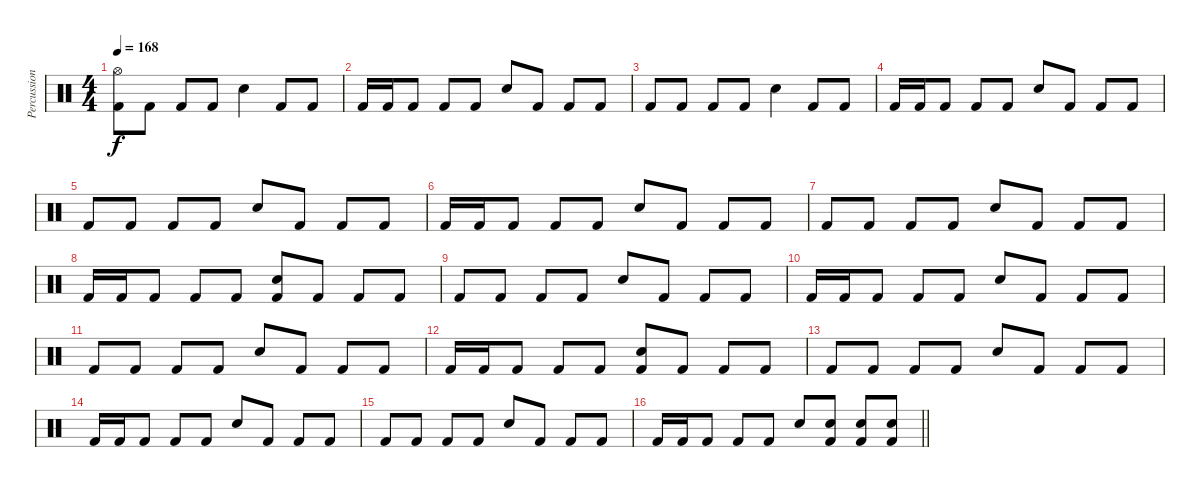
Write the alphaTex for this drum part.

\track ("Percussion" "Percussion") {instrument percussion}
\staff {score}
\articulation defaults
\ts (4 4)
\section ("" "")
\tempo 168
\clef neutral
\ks c
("Hi-Hat (open)" "Kick (hit) 2").8{dy f} "Kick (hit) 2".8 "Kick (hit) 2".8 "Kick (hit) 2".8 "Electric Snare (hit)".4 "Kick (hit) 2".8 "Kick (hit) 2".8 |
"Kick (hit) 2".16 "Kick (hit) 2".16 "Kick (hit) 2".8 "Kick (hit) 2".8 "Kick (hit) 2".8 "Electric Snare (hit)".8 "Kick (hit) 2".8 "Kick (hit) 2".8 "Kick (hit) 2".8 |
"Kick (hit) 2".8 "Kick (hit) 2".8 "Kick (hit) 2".8 "Kick (hit) 2".8 "Electric Snare (hit)".4 "Kick (hit) 2".8 "Kick (hit) 2".8 |
"Kick (hit) 2".16 "Kick (hit) 2".16 "Kick (hit) 2".8 "Kick (hit) 2".8 "Kick (hit) 2".8 "Electric Snare (hit)".8 "Kick (hit) 2".8 "Kick (hit) 2".8 "Kick (hit) 2".8 |
"Kick (hit) 2".8 "Kick (hit) 2".8 "Kick (hit) 2".8 "Kick (hit) 2".8 "Electric Snare (hit)".8 "Kick (hit) 2".8 "Kick (hit) 2".8 "Kick (hit) 2".8 |
"Kick (hit) 2".16 "Kick (hit) 2".16 "Kick (hit) 2".8 "Kick (hit) 2".8 "Kick (hit) 2".8 "Electric Snare (hit)".8 "Kick (hit) 2".8 "Kick (hit) 2".8 "Kick (hit) 2".8 |
"Kick (hit) 2".8 "Kick (hit) 2".8 "Kick (hit) 2".8 "Kick (hit) 2".8 "Electric Snare (hit)".8 "Kick (hit) 2".8 "Kick (hit) 2".8 "Kick (hit) 2".8 |
"Kick (hit) 2".16 "Kick (hit) 2".16 "Kick (hit) 2".8 "Kick (hit) 2".8 "Kick (hit) 2".8 ("Electric Snare (hit)" "Kick (hit) 2").8 "Kick (hit) 2".8 "Kick (hit) 2".8 "Kick (hit) 2".8 |
"Kick (hit) 2".8 "Kick (hit) 2".8 "Kick (hit) 2".8 "Kick (hit) 2".8 "Electric Snare (hit)".8 "Kick (hit) 2".8 "Kick (hit) 2".8 "Kick (hit) 2".8 |
"Kick (hit) 2".16 "Kick (hit) 2".16 "Kick (hit) 2".8 "Kick (hit) 2".8 "Kick (hit) 2".8 "Electric Snare (hit)".8 "Kick (hit) 2".8 "Kick (hit) 2".8 "Kick (hit) 2".8 |
"Kick (hit) 2".8 "Kick (hit) 2".8 "Kick (hit) 2".8 "Kick (hit) 2".8 "Electric Snare (hit)".8 "Kick (hit) 2".8 "Kick (hit) 2".8 "Kick (hit) 2".8 |
"Kick (hit) 2".16 "Kick (hit) 2".16 "Kick (hit) 2".8 "Kick (hit) 2".8 "Kick (hit) 2".8 ("Electric Snare (hit)" "Kick (hit) 2").8 "Kick (hit) 2".8 "Kick (hit) 2".8 "Kick (hit) 2".8 |
"Kick (hit) 2".8 "Kick (hit) 2".8 "Kick (hit) 2".8 "Kick (hit) 2".8 "Electric Snare (hit)".8 "Kick (hit) 2".8 "Kick (hit) 2".8 "Kick (hit) 2".8 |
"Kick (hit) 2".16 "Kick (hit) 2".16 "Kick (hit) 2".8 "Kick (hit) 2".8 "Kick (hit) 2".8 "Electric Snare (hit)".8 "Kick (hit) 2".8 "Kick (hit) 2".8 "Kick (hit) 2".8 |
"Kick (hit) 2".8 "Kick (hit) 2".8 "Kick (hit) 2".8 "Kick (hit) 2".8 "Electric Snare (hit)".8 "Kick (hit) 2".8 "Kick (hit) 2".8 "Kick (hit) 2".8 |
\barLineRight lightlight "Kick (hit) 2".16 "Kick (hit) 2".16 "Kick (hit) 2".8 "Kick (hit) 2".8 "Kick (hit) 2".8 "Electric Snare (hit)".8
("Electric Snare (hit)" "Kick (hit) 2").8 ("Electric Snare (hit)" "Kick (hit) 2").8 ("Electric Snare (hit)" "Kick (hit) 2").8
